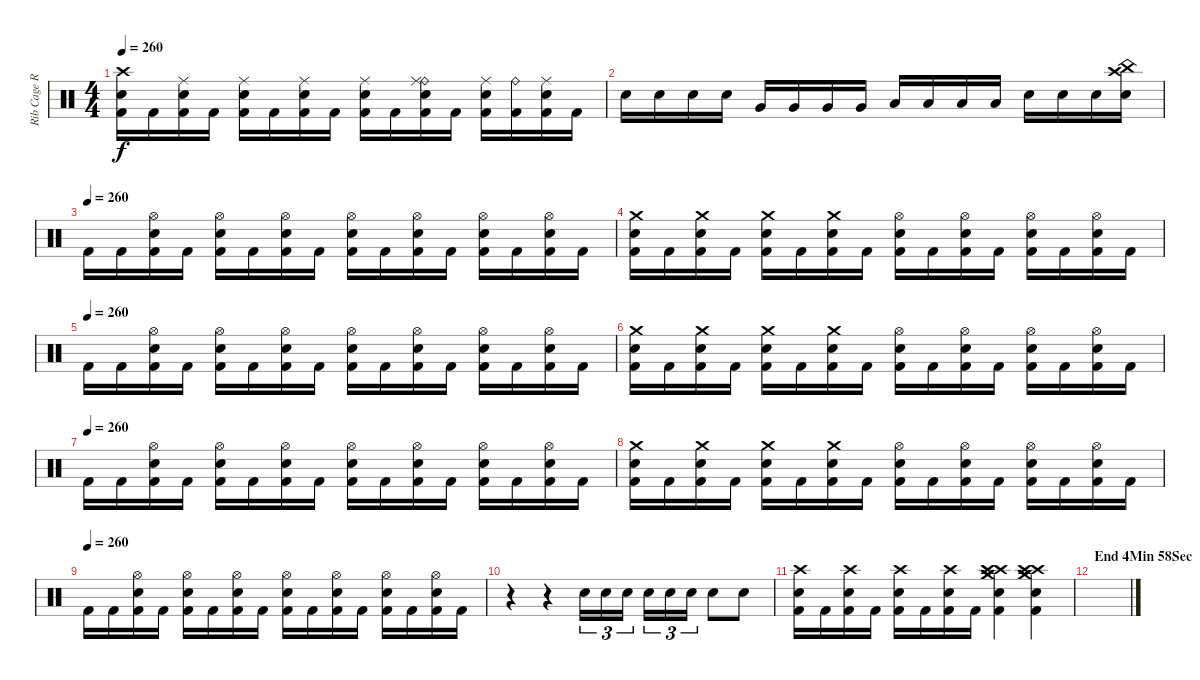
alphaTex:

\track ("Rib Cage Rupturing God Stomping Cremator" "Rib Cage R") {instrument percussion}
\staff {score}
\articulation defaults
\ts (4 4)
\tempo 260
\clef neutral
\ks c
("Crash high (hit)" "Electric Snare (hit)" "Kick (hit) 2").16{dy f} "Kick (hit) 2".16 ("Ride (middle)" "Electric Snare (hit)" "Kick (hit) 2").16 "Kick (hit) 2".16 ("Ride (middle)" "Electric Snare (hit)" "Kick (hit) 2").16 "Kick (hit) 2".16 ("Ride (middle)" "Electric Snare (hit)" "Kick (hit) 2").16 "Kick (hit) 2".16 ("Ride (middle)" "Electric Snare (hit)" "Kick (hit) 2").16 "Kick (hit) 2".16 ("Ride (bell)" "Ride (middle)" "Electric Snare (hit)" "Kick (hit) 2").16 "Kick (hit) 2".16 ("Ride (middle)" "Electric Snare (hit)" "Kick (hit) 2").16 ("Ride (bell)" "Kick (hit) 2").16 ("Ride (middle)" "Electric Snare (hit)" "Kick (hit) 2").16 "Kick (hit) 2".16 |
"Electric Snare (hit)".16 "Electric Snare (hit)".16 "Electric Snare (hit)".16 "Electric Snare (hit)".16 "Very Low Tom (hit)".16 "Very Low Tom (hit)".16 "Very Low Tom (hit)".16 "Very Low Tom (hit)".16 "Low Floor Tom (hit)".16 "Low Floor Tom (hit)".16 "Low Floor Tom (hit)".16 "Low Floor Tom (hit)".16 "Electric Snare (hit)".16 "Electric Snare (hit)".16 "Electric Snare (hit)".16 ("China (hit)" "Crash high (hit)" "Electric Snare (hit)").16 |
\tempo (260)
"Kick (hit) 2".16 "Kick (hit) 2".16 ("Hi-Hat (open)" "Electric Snare (hit)" "Kick (hit) 2").16 "Kick (hit) 2".16 ("Hi-Hat (open)" "Electric Snare (hit)" "Kick (hit) 2").16 "Kick (hit) 2".16 ("Hi-Hat (open)" "Electric Snare (hit)" "Kick (hit) 2").16 "Kick (hit) 2".16 ("Hi-Hat (open)" "Electric Snare (hit)" "Kick (hit) 2").16 "Kick (hit) 2".16 ("Hi-Hat (open)" "Electric Snare (hit)" "Kick (hit) 2").16 "Kick (hit) 2".16 ("Hi-Hat (open)" "Electric Snare (hit)" "Kick (hit) 2").16 "Kick (hit) 2".16 ("Hi-Hat (open)" "Electric Snare (hit)" "Kick (hit) 2").16 "Kick (hit) 2".16 |
("Crash medium (hit)" "Electric Snare (hit)" "Kick (hit) 2").16 "Kick (hit) 2".16 ("Crash medium (hit)" "Electric Snare (hit)" "Kick (hit) 2").16 "Kick (hit) 2".16 ("Crash medium (hit)" "Electric Snare (hit)" "Kick (hit) 2").16 "Kick (hit) 2".16 ("Crash medium (hit)" "Electric Snare (hit)" "Kick (hit) 2").16 "Kick (hit) 2".16 ("Hi-Hat (open)" "Electric Snare (hit)" "Kick (hit) 2").16 "Kick (hit) 2".16 ("Hi-Hat (open)" "Electric Snare (hit)" "Kick (hit) 2").16 "Kick (hit) 2".16 ("Hi-Hat (open)" "Electric Snare (hit)" "Kick (hit) 2").16 "Kick (hit) 2".16 ("Hi-Hat (open)" "Electric Snare (hit)" "Kick (hit) 2").16 "Kick (hit) 2".16 |
\tempo (260)
"Kick (hit) 2".16 "Kick (hit) 2".16 ("Hi-Hat (open)" "Electric Snare (hit)" "Kick (hit) 2").16 "Kick (hit) 2".16 ("Hi-Hat (open)" "Electric Snare (hit)" "Kick (hit) 2").16 "Kick (hit) 2".16 ("Hi-Hat (open)" "Electric Snare (hit)" "Kick (hit) 2").16 "Kick (hit) 2".16 ("Hi-Hat (open)" "Electric Snare (hit)" "Kick (hit) 2").16 "Kick (hit) 2".16 ("Hi-Hat (open)" "Electric Snare (hit)" "Kick (hit) 2").16 "Kick (hit) 2".16 ("Hi-Hat (open)" "Electric Snare (hit)" "Kick (hit) 2").16 "Kick (hit) 2".16 ("Hi-Hat (open)" "Electric Snare (hit)" "Kick (hit) 2").16 "Kick (hit) 2".16 |
("Crash medium (hit)" "Electric Snare (hit)" "Kick (hit) 2").16 "Kick (hit) 2".16 ("Crash medium (hit)" "Electric Snare (hit)" "Kick (hit) 2").16 "Kick (hit) 2".16 ("Crash medium (hit)" "Electric Snare (hit)" "Kick (hit) 2").16 "Kick (hit) 2".16 ("Crash medium (hit)" "Electric Snare (hit)" "Kick (hit) 2").16 "Kick (hit) 2".16 ("Hi-Hat (open)" "Electric Snare (hit)" "Kick (hit) 2").16 "Kick (hit) 2".16 ("Hi-Hat (open)" "Electric Snare (hit)" "Kick (hit) 2").16 "Kick (hit) 2".16 ("Hi-Hat (open)" "Electric Snare (hit)" "Kick (hit) 2").16 "Kick (hit) 2".16 ("Hi-Hat (open)" "Electric Snare (hit)" "Kick (hit) 2").16 "Kick (hit) 2".16 |
\tempo (260)
"Kick (hit) 2".16 "Kick (hit) 2".16 ("Hi-Hat (open)" "Electric Snare (hit)" "Kick (hit) 2").16 "Kick (hit) 2".16 ("Hi-Hat (open)" "Electric Snare (hit)" "Kick (hit) 2").16 "Kick (hit) 2".16 ("Hi-Hat (open)" "Electric Snare (hit)" "Kick (hit) 2").16 "Kick (hit) 2".16 ("Hi-Hat (open)" "Electric Snare (hit)" "Kick (hit) 2").16 "Kick (hit) 2".16 ("Hi-Hat (open)" "Electric Snare (hit)" "Kick (hit) 2").16 "Kick (hit) 2".16 ("Hi-Hat (open)" "Electric Snare (hit)" "Kick (hit) 2").16 "Kick (hit) 2".16 ("Hi-Hat (open)" "Electric Snare (hit)" "Kick (hit) 2").16 "Kick (hit) 2".16 |
("Crash medium (hit)" "Electric Snare (hit)" "Kick (hit) 2").16 "Kick (hit) 2".16 ("Crash medium (hit)" "Electric Snare (hit)" "Kick (hit) 2").16 "Kick (hit) 2".16 ("Crash medium (hit)" "Electric Snare (hit)" "Kick (hit) 2").16 "Kick (hit) 2".16 ("Crash medium (hit)" "Electric Snare (hit)" "Kick (hit) 2").16 "Kick (hit) 2".16 ("Hi-Hat (open)" "Electric Snare (hit)" "Kick (hit) 2").16 "Kick (hit) 2".16 ("Hi-Hat (open)" "Electric Snare (hit)" "Kick (hit) 2").16 "Kick (hit) 2".16 ("Hi-Hat (open)" "Electric Snare (hit)" "Kick (hit) 2").16 "Kick (hit) 2".16 ("Hi-Hat (open)" "Electric Snare (hit)" "Kick (hit) 2").16 "Kick (hit) 2".16 |
\tempo (260)
"Kick (hit) 2".16 "Kick (hit) 2".16 ("Hi-Hat (open)" "Electric Snare (hit)" "Kick (hit) 2").16 "Kick (hit) 2".16 ("Hi-Hat (open)" "Electric Snare (hit)" "Kick (hit) 2").16 "Kick (hit) 2".16 ("Hi-Hat (open)" "Electric Snare (hit)" "Kick (hit) 2").16 "Kick (hit) 2".16 ("Hi-Hat (open)" "Electric Snare (hit)" "Kick (hit) 2").16 "Kick (hit) 2".16 ("Hi-Hat (open)" "Electric Snare (hit)" "Kick (hit) 2").16 "Kick (hit) 2".16 ("Hi-Hat (open)" "Electric Snare (hit)" "Kick (hit) 2").16 "Kick (hit) 2".16 ("Hi-Hat (open)" "Electric Snare (hit)" "Kick (hit) 2").16 "Kick (hit) 2".16 |
r.4 r.4 "Electric Snare (hit)".16{tu (3 2)} "Electric Snare (hit)".16{tu (3 2)} "Electric Snare (hit)".16{tu (3 2)} "Electric Snare (hit)".16{tu (3 2)} "Electric Snare (hit)".16{tu (3 2)} "Electric Snare (hit)".16{tu (3 2)} "Electric Snare (hit)".8 "Electric Snare (hit)".8 |
("Crash high (hit)" "Electric Snare (hit)" "Kick (hit) 2").16 "Kick (hit) 2".16 ("Crash high (hit)" "Electric Snare (hit)" "Kick (hit) 2").16 "Kick (hit) 2".16 ("Crash high (hit)" "Electric Snare (hit)" "Kick (hit) 2").16 "Kick (hit) 2".16 ("Crash high (hit)" "Electric Snare (hit)" "Kick (hit) 2").16 "Kick (hit) 2".16 ("Crash high (hit)" "Crash medium (hit)" "Crash high (hit)" "Crash medium (hit)" "Electric Snare (hit)" "Kick (hit) 2").4 ("Crash high (hit)" "Crash medium (hit)" "Crash high (hit)" "Crash medium (hit)" "Electric Snare (hit)" "Kick (hit) 2").4 |
\section ("" "End 4Min 58Sec")
